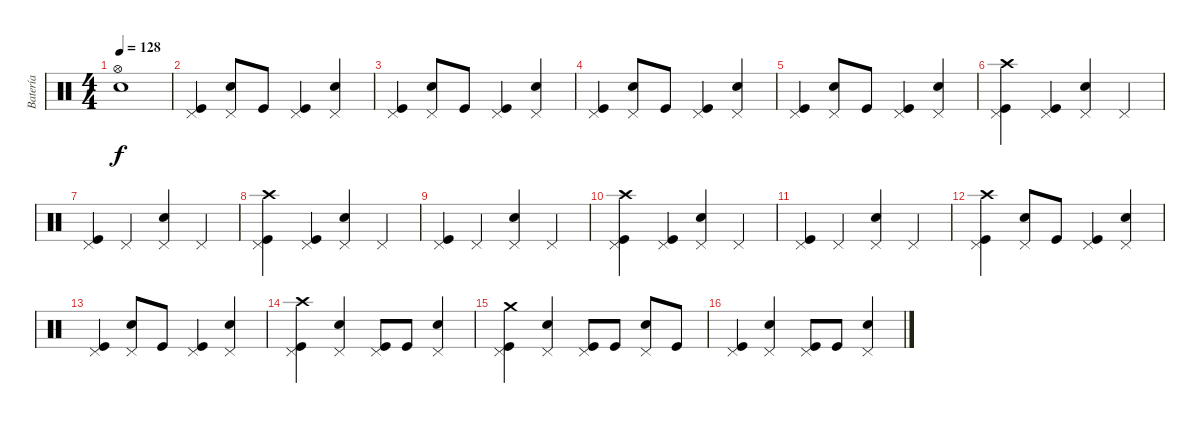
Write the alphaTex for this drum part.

\track ("Batería" "Batería") {instrument percussion}
\staff {score}
\articulation defaults
\ts (4 4)
\tempo 128
\clef neutral
\ks c
("Hi-Hat (open)" "Snare (hit) 2").1{dy f} |
("Pedal Hi-Hat (hit)" "Kick (hit)").4 ("Pedal Hi-Hat (hit)" "Snare (hit) 2").8 "Kick (hit)".8 ("Pedal Hi-Hat (hit)" "Kick (hit)").4 ("Pedal Hi-Hat (hit)" "Snare (hit) 2").4 |
("Pedal Hi-Hat (hit)" "Kick (hit)").4 ("Pedal Hi-Hat (hit)" "Snare (hit) 2").8 "Kick (hit)".8 ("Pedal Hi-Hat (hit)" "Kick (hit)").4 ("Pedal Hi-Hat (hit)" "Snare (hit) 2").4 |
("Pedal Hi-Hat (hit)" "Kick (hit)").4 ("Pedal Hi-Hat (hit)" "Snare (hit) 2").8 "Kick (hit)".8 ("Pedal Hi-Hat (hit)" "Kick (hit)").4 ("Pedal Hi-Hat (hit)" "Snare (hit) 2").4 |
("Pedal Hi-Hat (hit)" "Kick (hit)").4 ("Pedal Hi-Hat (hit)" "Snare (hit) 2").8 "Kick (hit)".8 ("Pedal Hi-Hat (hit)" "Kick (hit)").4 ("Pedal Hi-Hat (hit)" "Snare (hit) 2").4 |
("Crash high (hit)" "Pedal Hi-Hat (hit)" "Kick (hit)").4 ("Pedal Hi-Hat (hit)" "Kick (hit)").4 ("Pedal Hi-Hat (hit)" "Snare (hit) 2").4 "Pedal Hi-Hat (hit)".4 |
("Pedal Hi-Hat (hit)" "Kick (hit)").4 "Pedal Hi-Hat (hit)".4 ("Pedal Hi-Hat (hit)" "Snare (hit) 2").4 "Pedal Hi-Hat (hit)".4 |
("Crash high (hit)" "Pedal Hi-Hat (hit)" "Kick (hit)").4 ("Pedal Hi-Hat (hit)" "Kick (hit)").4 ("Pedal Hi-Hat (hit)" "Snare (hit) 2").4 "Pedal Hi-Hat (hit)".4 |
("Pedal Hi-Hat (hit)" "Kick (hit)").4 "Pedal Hi-Hat (hit)".4 ("Pedal Hi-Hat (hit)" "Snare (hit) 2").4 "Pedal Hi-Hat (hit)".4 |
("Crash high (hit)" "Pedal Hi-Hat (hit)" "Kick (hit)").4 ("Pedal Hi-Hat (hit)" "Kick (hit)").4 ("Pedal Hi-Hat (hit)" "Snare (hit) 2").4 "Pedal Hi-Hat (hit)".4 |
("Pedal Hi-Hat (hit)" "Kick (hit)").4 "Pedal Hi-Hat (hit)".4 ("Pedal Hi-Hat (hit)" "Snare (hit) 2").4 "Pedal Hi-Hat (hit)".4 |
("Crash high (hit)" "Pedal Hi-Hat (hit)" "Kick (hit)").4 ("Pedal Hi-Hat (hit)" "Snare (hit) 2").8 "Kick (hit)".8 ("Pedal Hi-Hat (hit)" "Kick (hit)").4 ("Pedal Hi-Hat (hit)" "Snare (hit) 2").4 |
("Pedal Hi-Hat (hit)" "Kick (hit)").4 ("Pedal Hi-Hat (hit)" "Snare (hit) 2").8 "Kick (hit)".8 ("Pedal Hi-Hat (hit)" "Kick (hit)").4 ("Pedal Hi-Hat (hit)" "Snare (hit) 2").4 |
("Crash high (hit)" "Pedal Hi-Hat (hit)" "Kick (hit)").4 ("Pedal Hi-Hat (hit)" "Snare (hit) 2").4 ("Pedal Hi-Hat (hit)" "Kick (hit)").8 "Kick (hit)".8 ("Pedal Hi-Hat (hit)" "Snare (hit) 2").4 |
("Crash medium (hit)" "Pedal Hi-Hat (hit)" "Kick (hit)").4 ("Pedal Hi-Hat (hit)" "Snare (hit) 2").4 ("Pedal Hi-Hat (hit)" "Kick (hit)").8 "Kick (hit)".8 ("Pedal Hi-Hat (hit)" "Snare (hit) 2").8 "Kick (hit)".8 |
("Pedal Hi-Hat (hit)" "Kick (hit)").4 ("Pedal Hi-Hat (hit)" "Snare (hit) 2").4 ("Pedal Hi-Hat (hit)" "Kick (hit)").8 "Kick (hit)".8 ("Pedal Hi-Hat (hit)" "Snare (hit) 2").4
